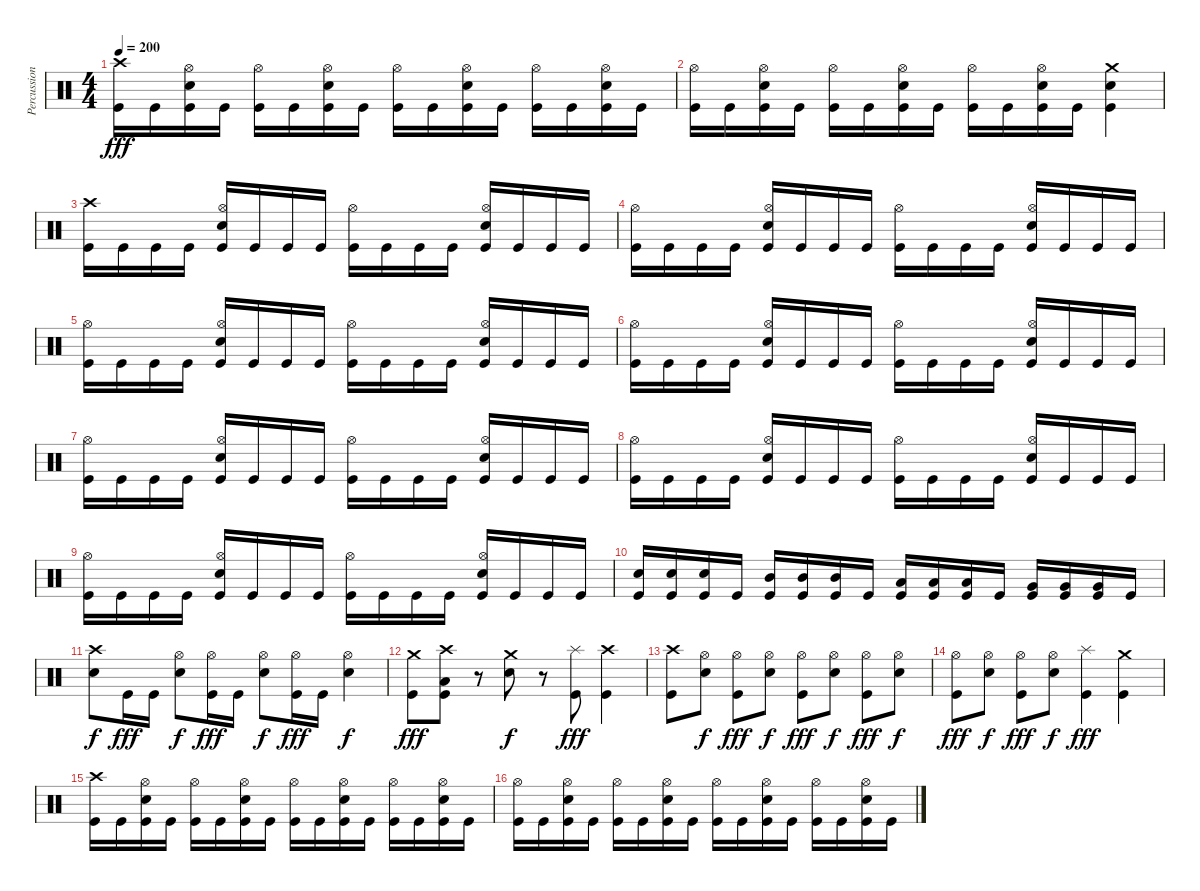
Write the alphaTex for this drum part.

\track ("Percussion" "Percussion") {instrument percussion}
\staff {score}
\articulation defaults
\ts (4 4)
\tempo 200
\clef neutral
\ks c
("Crash high (hit)" "Kick (hit)").16{dy fff} "Kick (hit)".16 ("Hi-Hat (open)" "Snare (hit) 2" "Kick (hit)").16 "Kick (hit)".16 ("Hi-Hat (open)" "Kick (hit)").16 "Kick (hit)".16 ("Hi-Hat (open)" "Snare (hit) 2" "Kick (hit)").16 "Kick (hit)".16 ("Hi-Hat (open)" "Kick (hit)").16 "Kick (hit)".16 ("Hi-Hat (open)" "Snare (hit) 2" "Kick (hit)").16 "Kick (hit)".16 ("Hi-Hat (open)" "Kick (hit)").16 "Kick (hit)".16 ("Hi-Hat (open)" "Snare (hit) 2" "Kick (hit)").16 "Kick (hit)".16 |
("Hi-Hat (open)" "Kick (hit)").16 "Kick (hit)".16 ("Hi-Hat (open)" "Snare (hit) 2" "Kick (hit)").16 "Kick (hit)".16 ("Hi-Hat (open)" "Kick (hit)").16 "Kick (hit)".16 ("Hi-Hat (open)" "Snare (hit) 2" "Kick (hit)").16 "Kick (hit)".16 ("Hi-Hat (open)" "Kick (hit)").16 "Kick (hit)".16 ("Hi-Hat (open)" "Snare (hit) 2" "Kick (hit)").16 "Kick (hit)".16 ("Crash medium (hit)" "Snare (hit) 2" "Kick (hit)").4 |
("Crash high (hit)" "Kick (hit)").16 "Kick (hit)".16 "Kick (hit)".16 "Kick (hit)".16 ("Hi-Hat (open)" "Snare (hit) 2" "Kick (hit)").16 "Kick (hit)".16 "Kick (hit)".16 "Kick (hit)".16 ("Hi-Hat (open)" "Kick (hit)").16 "Kick (hit)".16 "Kick (hit)".16 "Kick (hit)".16 ("Hi-Hat (open)" "Snare (hit) 2" "Kick (hit)").16 "Kick (hit)".16 "Kick (hit)".16 "Kick (hit)".16 |
("Hi-Hat (open)" "Kick (hit)").16 "Kick (hit)".16 "Kick (hit)".16 "Kick (hit)".16 ("Hi-Hat (open)" "Snare (hit) 2" "Kick (hit)").16 "Kick (hit)".16 "Kick (hit)".16 "Kick (hit)".16 ("Hi-Hat (open)" "Kick (hit)").16 "Kick (hit)".16 "Kick (hit)".16 "Kick (hit)".16 ("Hi-Hat (open)" "Snare (hit) 2" "Kick (hit)").16 "Kick (hit)".16 "Kick (hit)".16 "Kick (hit)".16 |
("Hi-Hat (open)" "Kick (hit)").16 "Kick (hit)".16 "Kick (hit)".16 "Kick (hit)".16 ("Hi-Hat (open)" "Snare (hit) 2" "Kick (hit)").16 "Kick (hit)".16 "Kick (hit)".16 "Kick (hit)".16 ("Hi-Hat (open)" "Kick (hit)").16 "Kick (hit)".16 "Kick (hit)".16 "Kick (hit)".16 ("Hi-Hat (open)" "Snare (hit) 2" "Kick (hit)").16 "Kick (hit)".16 "Kick (hit)".16 "Kick (hit)".16 |
("Hi-Hat (open)" "Kick (hit)").16 "Kick (hit)".16 "Kick (hit)".16 "Kick (hit)".16 ("Hi-Hat (open)" "Snare (hit) 2" "Kick (hit)").16 "Kick (hit)".16 "Kick (hit)".16 "Kick (hit)".16 ("Hi-Hat (open)" "Kick (hit)").16 "Kick (hit)".16 "Kick (hit)".16 "Kick (hit)".16 ("Hi-Hat (open)" "Snare (hit) 2" "Kick (hit)").16 "Kick (hit)".16 "Kick (hit)".16 "Kick (hit)".16 |
("Hi-Hat (open)" "Kick (hit)").16 "Kick (hit)".16 "Kick (hit)".16 "Kick (hit)".16 ("Hi-Hat (open)" "Snare (hit) 2" "Kick (hit)").16 "Kick (hit)".16 "Kick (hit)".16 "Kick (hit)".16 ("Hi-Hat (open)" "Kick (hit)").16 "Kick (hit)".16 "Kick (hit)".16 "Kick (hit)".16 ("Hi-Hat (open)" "Snare (hit) 2" "Kick (hit)").16 "Kick (hit)".16 "Kick (hit)".16 "Kick (hit)".16 |
("Hi-Hat (open)" "Kick (hit)").16 "Kick (hit)".16 "Kick (hit)".16 "Kick (hit)".16 ("Hi-Hat (open)" "Snare (hit) 2" "Kick (hit)").16 "Kick (hit)".16 "Kick (hit)".16 "Kick (hit)".16 ("Hi-Hat (open)" "Kick (hit)").16 "Kick (hit)".16 "Kick (hit)".16 "Kick (hit)".16 ("Hi-Hat (open)" "Snare (hit) 2" "Kick (hit)").16 "Kick (hit)".16 "Kick (hit)".16 "Kick (hit)".16 |
("Hi-Hat (open)" "Kick (hit)").16 "Kick (hit)".16 "Kick (hit)".16 "Kick (hit)".16 ("Hi-Hat (open)" "Snare (hit) 2" "Kick (hit)").16 "Kick (hit)".16 "Kick (hit)".16 "Kick (hit)".16 ("Hi-Hat (open)" "Kick (hit)").16 "Kick (hit)".16 "Kick (hit)".16 "Kick (hit)".16 ("Hi-Hat (open)" "Snare (hit) 2" "Kick (hit)").16 "Kick (hit)".16 "Kick (hit)".16 "Kick (hit)".16 |
("Snare (hit) 2" "Kick (hit)").16 ("Snare (hit) 2" "Kick (hit)").16 ("Snare (hit) 2" "Kick (hit)").16 "Kick (hit)".16 ("Mid Tom (hit)" "Kick (hit)").16 ("Mid Tom (hit)" "Kick (hit)").16 ("Mid Tom (hit)" "Kick (hit)").16 "Kick (hit)".16 ("Low Tom (hit)" "Kick (hit)").16 ("Low Tom (hit)" "Kick (hit)").16 ("Low Tom (hit)" "Kick (hit)").16 "Kick (hit)".16 ("Very Low Tom (hit)" "Kick (hit)").16 ("Very Low Tom (hit)" "Kick (hit)").16 ("Very Low Tom (hit)" "Kick (hit)").16 "Kick (hit)".16 |
("Crash high (hit)" "Snare (hit) 2").8{dy f} "Kick (hit)".16{dy fff} "Kick (hit)".16 ("Hi-Hat (open)" "Snare (hit) 2").8{dy f} ("Hi-Hat (open)" "Kick (hit)").16{dy fff} "Kick (hit)".16 ("Hi-Hat (open)" "Snare (hit) 2").8{dy f} ("Hi-Hat (open)" "Kick (hit)").16{dy fff} "Kick (hit)".16 ("Hi-Hat (open)" "Snare (hit) 2").4{dy f} |
("Crash medium (hit)" "Kick (hit)").8{dy fff} ("Crash high (hit)" "Low Tom (hit)" "Kick (hit)").8 r.8 ("Crash medium (hit)" "Snare (hit) 2").8{dy f} r.8 ("Splash (hit)" "Kick (hit)").8{dy fff} ("Crash high (hit)" "Kick (hit)").4 |
("Crash high (hit)" "Kick (hit)").8 ("Hi-Hat (open)" "Snare (hit) 2").8{dy f} ("Hi-Hat (open)" "Kick (hit)").8{dy fff} ("Hi-Hat (open)" "Snare (hit) 2").8{dy f} ("Hi-Hat (open)" "Kick (hit)").8{dy fff} ("Hi-Hat (open)" "Snare (hit) 2").8{dy f} ("Hi-Hat (open)" "Kick (hit)").8{dy fff} ("Hi-Hat (open)" "Snare (hit) 2").8{dy f} |
("Hi-Hat (open)" "Kick (hit)").8{dy fff} ("Hi-Hat (open)" "Snare (hit) 2").8{dy f} ("Hi-Hat (open)" "Kick (hit)").8{dy fff} ("Hi-Hat (open)" "Snare (hit) 2").8{dy f} ("Splash (hit)" "Kick (hit)").4{dy fff} ("Crash medium (hit)" "Kick (hit)").4 |
("Crash high (hit)" "Kick (hit)").16 "Kick (hit)".16 ("Hi-Hat (open)" "Snare (hit) 2" "Kick (hit)").16 "Kick (hit)".16 ("Hi-Hat (open)" "Kick (hit)").16 "Kick (hit)".16 ("Hi-Hat (open)" "Snare (hit) 2" "Kick (hit)").16 "Kick (hit)".16 ("Hi-Hat (open)" "Kick (hit)").16 "Kick (hit)".16 ("Hi-Hat (open)" "Snare (hit) 2" "Kick (hit)").16 "Kick (hit)".16 ("Hi-Hat (open)" "Kick (hit)").16 "Kick (hit)".16 ("Hi-Hat (open)" "Snare (hit) 2" "Kick (hit)").16 "Kick (hit)".16 |
("Hi-Hat (open)" "Kick (hit)").16 "Kick (hit)".16 ("Hi-Hat (open)" "Snare (hit) 2" "Kick (hit)").16 "Kick (hit)".16 ("Hi-Hat (open)" "Kick (hit)").16 "Kick (hit)".16 ("Hi-Hat (open)" "Snare (hit) 2" "Kick (hit)").16 "Kick (hit)".16 ("Hi-Hat (open)" "Kick (hit)").16 "Kick (hit)".16 ("Hi-Hat (open)" "Snare (hit) 2" "Kick (hit)").16 "Kick (hit)".16 ("Hi-Hat (open)" "Kick (hit)").16 "Kick (hit)".16 ("Hi-Hat (open)" "Snare (hit) 2" "Kick (hit)").16 "Kick (hit)".16
